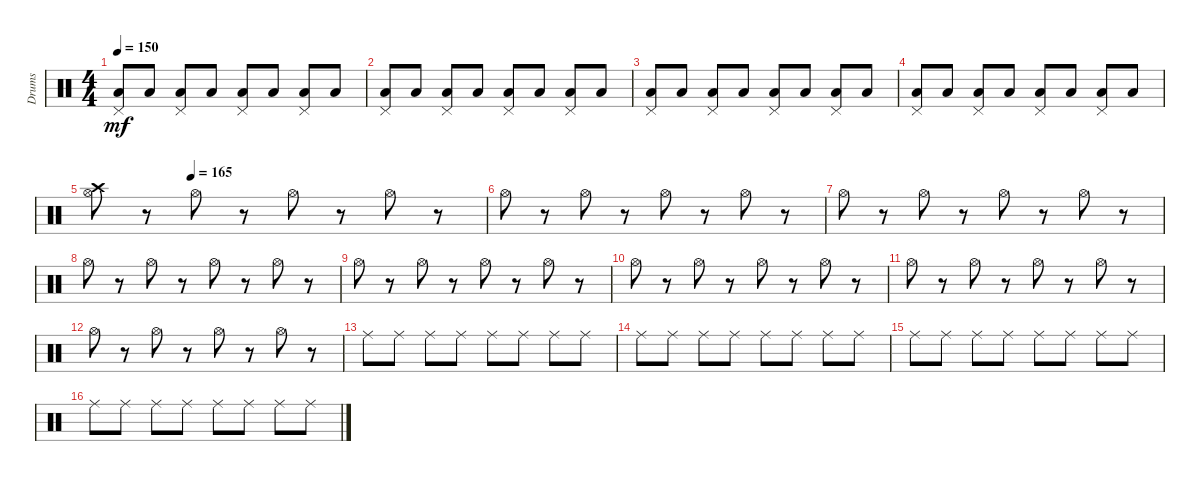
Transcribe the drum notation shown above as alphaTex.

\track ("Drums" "Drums") {instrument percussion}
\staff {score}
\articulation defaults
\ts (4 4)
\tempo 150
\clef neutral
\ks c
("Low Floor Tom (hit)" "Pedal Hi-Hat (hit)").8{dy mf} "Low Floor Tom (hit)".8 ("Low Floor Tom (hit)" "Pedal Hi-Hat (hit)").8 "Low Floor Tom (hit)".8 ("Low Floor Tom (hit)" "Pedal Hi-Hat (hit)").8 "Low Floor Tom (hit)".8 ("Low Floor Tom (hit)" "Pedal Hi-Hat (hit)").8 "Low Floor Tom (hit)".8 |
("Low Floor Tom (hit)" "Pedal Hi-Hat (hit)").8 "Low Floor Tom (hit)".8 ("Low Floor Tom (hit)" "Pedal Hi-Hat (hit)").8 "Low Floor Tom (hit)".8 ("Low Floor Tom (hit)" "Pedal Hi-Hat (hit)").8 "Low Floor Tom (hit)".8 ("Low Floor Tom (hit)" "Pedal Hi-Hat (hit)").8 "Low Floor Tom (hit)".8 |
("Pedal Hi-Hat (hit)" "Low Floor Tom (hit)").8 "Low Floor Tom (hit)".8 ("Pedal Hi-Hat (hit)" "Low Floor Tom (hit)").8 "Low Floor Tom (hit)".8 ("Pedal Hi-Hat (hit)" "Low Floor Tom (hit)").8 "Low Floor Tom (hit)".8 ("Pedal Hi-Hat (hit)" "Low Floor Tom (hit)").8 "Low Floor Tom (hit)".8 |
("Pedal Hi-Hat (hit)" "Low Floor Tom (hit)").8 "Low Floor Tom (hit)".8 ("Pedal Hi-Hat (hit)" "Low Floor Tom (hit)").8 "Low Floor Tom (hit)".8 ("Pedal Hi-Hat (hit)" "Low Floor Tom (hit)").8 "Low Floor Tom (hit)".8 ("Pedal Hi-Hat (hit)" "Low Floor Tom (hit)").8 "Low Floor Tom (hit)".8 |
\tempo (165 0.25)
("Hi-Hat (open)" "Crash high (hit)").8 r.8 "Hi-Hat (open)".8 r.8 "Hi-Hat (open)".8 r.8 "Hi-Hat (open)".8 r.8 |
"Hi-Hat (open)".8 r.8 "Hi-Hat (open)".8 r.8 "Hi-Hat (open)".8 r.8 "Hi-Hat (open)".8 r.8 |
"Hi-Hat (open)".8 r.8 "Hi-Hat (open)".8 r.8 "Hi-Hat (open)".8 r.8 "Hi-Hat (open)".8 r.8 |
"Hi-Hat (open)".8 r.8 "Hi-Hat (open)".8 r.8 "Hi-Hat (open)".8 r.8 "Hi-Hat (open)".8 r.8 |
"Hi-Hat (open)".8 r.8 "Hi-Hat (open)".8 r.8 "Hi-Hat (open)".8 r.8 "Hi-Hat (open)".8 r.8 |
"Hi-Hat (open)".8 r.8 "Hi-Hat (open)".8 r.8 "Hi-Hat (open)".8 r.8 "Hi-Hat (open)".8 r.8 |
"Hi-Hat (open)".8 r.8 "Hi-Hat (open)".8 r.8 "Hi-Hat (open)".8 r.8 "Hi-Hat (open)".8 r.8 |
"Hi-Hat (open)".8 r.8 "Hi-Hat (open)".8 r.8 "Hi-Hat (open)".8 r.8 "Hi-Hat (open)".8 r.8 |
"Ride (middle)".8 "Ride (middle)".8 "Ride (middle)".8 "Ride (middle)".8 "Ride (middle)".8 "Ride (middle)".8 "Ride (middle)".8 "Ride (middle)".8 |
"Ride (middle)".8 "Ride (middle)".8 "Ride (middle)".8 "Ride (middle)".8 "Ride (middle)".8 "Ride (middle)".8 "Ride (middle)".8 "Ride (middle)".8 |
"Ride (middle)".8 "Ride (middle)".8 "Ride (middle)".8 "Ride (middle)".8 "Ride (middle)".8 "Ride (middle)".8 "Ride (middle)".8 "Ride (middle)".8 |
"Ride (middle)".8 "Ride (middle)".8 "Ride (middle)".8 "Ride (middle)".8 "Ride (middle)".8 "Ride (middle)".8 "Ride (middle)".8 "Ride (middle)".8
